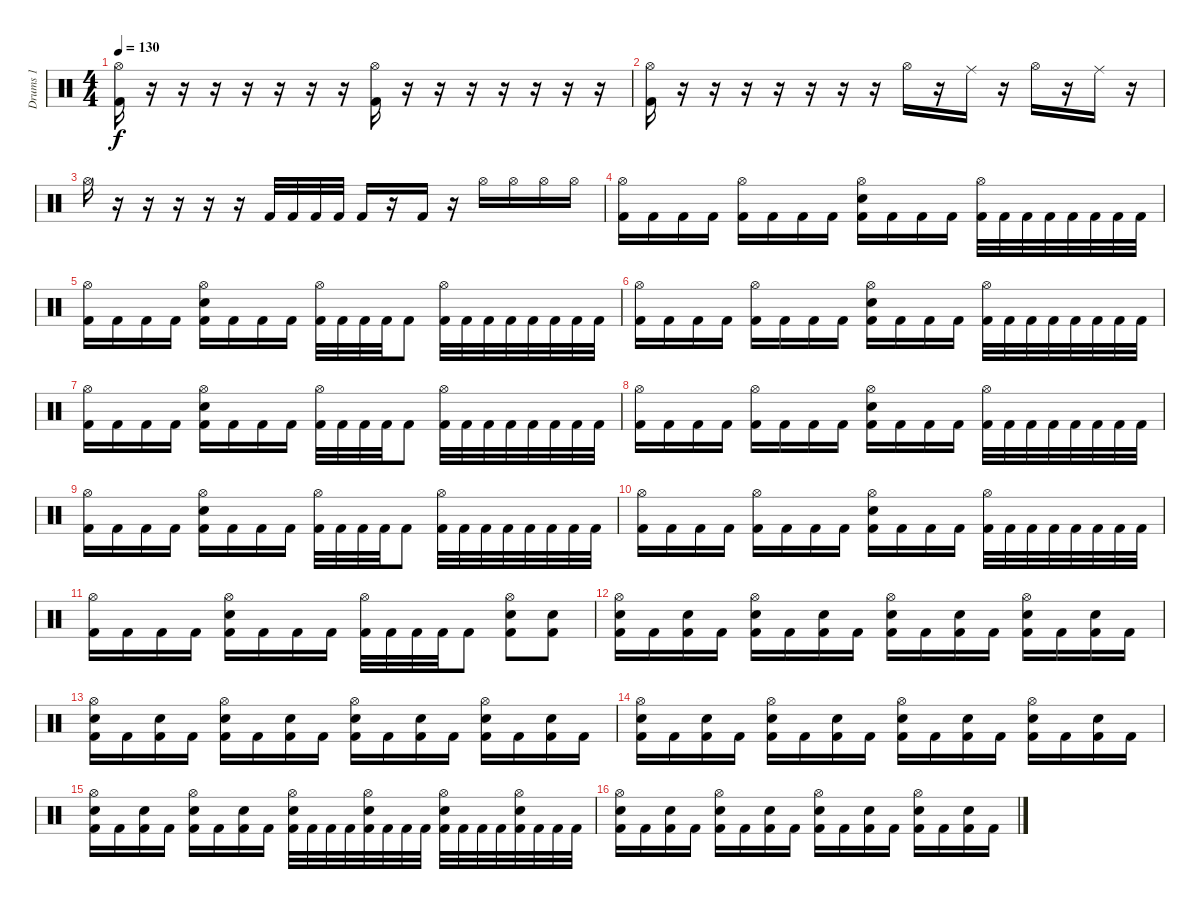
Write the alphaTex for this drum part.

\track ("Drums 1" "Drums 1") {instrument percussion}
\staff {score}
\articulation defaults
\ts (4 4)
\tempo 130
\clef neutral
\ks c
("Hi-Hat (open)" "Kick (hit) 2").16{dy f} r.16 r.16 r.16 r.16 r.16 r.16 r.16 ("Hi-Hat (open)" "Kick (hit) 2").16 r.16 r.16 r.16 r.16 r.16 r.16 r.16 |
("Hi-Hat (open)" "Kick (hit) 2").16 r.16 r.16 r.16 r.16 r.16 r.16 r.16 "Hi-Hat (open)".16 r.16 "Ride (middle)".16 r.16 "Hi-Hat (open)".16 r.16 "Ride (middle)".16 r.16 |
"Hi-Hat (open)".16 r.16 r.16 r.16 r.16 r.16 "Kick (hit) 2".32 "Kick (hit) 2".32 "Kick (hit) 2".32 "Kick (hit) 2".32 "Kick (hit) 2".16 r.16 "Kick (hit) 2".16 r.16 "Hi-Hat (open)".16 "Hi-Hat (open)".16 "Hi-Hat (open)".16 "Hi-Hat (open)".16 |
("Hi-Hat (open)" "Kick (hit) 2").16 "Kick (hit) 2".16 "Kick (hit) 2".16 "Kick (hit) 2".16 ("Hi-Hat (open)" "Kick (hit) 2").16 "Kick (hit) 2".16 "Kick (hit) 2".16 "Kick (hit) 2".16 ("Hi-Hat (open)" "Snare (hit) 2" "Kick (hit) 2").16 "Kick (hit) 2".16 "Kick (hit) 2".16 "Kick (hit) 2".16 ("Hi-Hat (open)" "Kick (hit) 2").32 "Kick (hit) 2".32 "Kick (hit) 2".32 "Kick (hit) 2".32 "Kick (hit) 2".32 "Kick (hit) 2".32 "Kick (hit) 2".32 "Kick (hit) 2".32 |
("Hi-Hat (open)" "Kick (hit) 2").16 "Kick (hit) 2".16 "Kick (hit) 2".16 "Kick (hit) 2".16 ("Hi-Hat (open)" "Snare (hit) 2" "Kick (hit) 2").16 "Kick (hit) 2".16 "Kick (hit) 2".16 "Kick (hit) 2".16 ("Hi-Hat (open)" "Kick (hit) 2").32 "Kick (hit) 2".32 "Kick (hit) 2".32 "Kick (hit) 2".32 "Kick (hit) 2".8 ("Hi-Hat (open)" "Kick (hit) 2").32 "Kick (hit) 2".32 "Kick (hit) 2".32 "Kick (hit) 2".32 "Kick (hit) 2".32 "Kick (hit) 2".32 "Kick (hit) 2".32 "Kick (hit) 2".32 |
("Hi-Hat (open)" "Kick (hit) 2").16 "Kick (hit) 2".16 "Kick (hit) 2".16 "Kick (hit) 2".16 ("Hi-Hat (open)" "Kick (hit) 2").16 "Kick (hit) 2".16 "Kick (hit) 2".16 "Kick (hit) 2".16 ("Hi-Hat (open)" "Snare (hit) 2" "Kick (hit) 2").16 "Kick (hit) 2".16 "Kick (hit) 2".16 "Kick (hit) 2".16 ("Hi-Hat (open)" "Kick (hit) 2").32 "Kick (hit) 2".32 "Kick (hit) 2".32 "Kick (hit) 2".32 "Kick (hit) 2".32 "Kick (hit) 2".32 "Kick (hit) 2".32 "Kick (hit) 2".32 |
("Hi-Hat (open)" "Kick (hit) 2").16 "Kick (hit) 2".16 "Kick (hit) 2".16 "Kick (hit) 2".16 ("Hi-Hat (open)" "Snare (hit) 2" "Kick (hit) 2").16 "Kick (hit) 2".16 "Kick (hit) 2".16 "Kick (hit) 2".16 ("Hi-Hat (open)" "Kick (hit) 2").32 "Kick (hit) 2".32 "Kick (hit) 2".32 "Kick (hit) 2".32 "Kick (hit) 2".8 ("Hi-Hat (open)" "Kick (hit) 2").32 "Kick (hit) 2".32 "Kick (hit) 2".32 "Kick (hit) 2".32 "Kick (hit) 2".32 "Kick (hit) 2".32 "Kick (hit) 2".32 "Kick (hit) 2".32 |
("Hi-Hat (open)" "Kick (hit) 2").16 "Kick (hit) 2".16 "Kick (hit) 2".16 "Kick (hit) 2".16 ("Hi-Hat (open)" "Kick (hit) 2").16 "Kick (hit) 2".16 "Kick (hit) 2".16 "Kick (hit) 2".16 ("Hi-Hat (open)" "Snare (hit) 2" "Kick (hit) 2").16 "Kick (hit) 2".16 "Kick (hit) 2".16 "Kick (hit) 2".16 ("Hi-Hat (open)" "Kick (hit) 2").32 "Kick (hit) 2".32 "Kick (hit) 2".32 "Kick (hit) 2".32 "Kick (hit) 2".32 "Kick (hit) 2".32 "Kick (hit) 2".32 "Kick (hit) 2".32 |
("Hi-Hat (open)" "Kick (hit) 2").16 "Kick (hit) 2".16 "Kick (hit) 2".16 "Kick (hit) 2".16 ("Hi-Hat (open)" "Snare (hit) 2" "Kick (hit) 2").16 "Kick (hit) 2".16 "Kick (hit) 2".16 "Kick (hit) 2".16 ("Hi-Hat (open)" "Kick (hit) 2").32 "Kick (hit) 2".32 "Kick (hit) 2".32 "Kick (hit) 2".32 "Kick (hit) 2".8 ("Hi-Hat (open)" "Kick (hit) 2").32 "Kick (hit) 2".32 "Kick (hit) 2".32 "Kick (hit) 2".32 "Kick (hit) 2".32 "Kick (hit) 2".32 "Kick (hit) 2".32 "Kick (hit) 2".32 |
("Hi-Hat (open)" "Kick (hit) 2").16 "Kick (hit) 2".16 "Kick (hit) 2".16 "Kick (hit) 2".16 ("Hi-Hat (open)" "Kick (hit) 2").16 "Kick (hit) 2".16 "Kick (hit) 2".16 "Kick (hit) 2".16 ("Hi-Hat (open)" "Snare (hit) 2" "Kick (hit) 2").16 "Kick (hit) 2".16 "Kick (hit) 2".16 "Kick (hit) 2".16 ("Hi-Hat (open)" "Kick (hit) 2").32 "Kick (hit) 2".32 "Kick (hit) 2".32 "Kick (hit) 2".32 "Kick (hit) 2".32 "Kick (hit) 2".32 "Kick (hit) 2".32 "Kick (hit) 2".32 |
("Hi-Hat (open)" "Kick (hit) 2").16 "Kick (hit) 2".16 "Kick (hit) 2".16 "Kick (hit) 2".16 ("Hi-Hat (open)" "Snare (hit) 2" "Kick (hit) 2").16 "Kick (hit) 2".16 "Kick (hit) 2".16 "Kick (hit) 2".16 ("Hi-Hat (open)" "Kick (hit) 2").32 "Kick (hit) 2".32 "Kick (hit) 2".32 "Kick (hit) 2".32 "Kick (hit) 2".8 ("Hi-Hat (open)" "Snare (hit) 2" "Kick (hit) 2").8 ("Snare (hit) 2" "Kick (hit) 2").8 |
("Hi-Hat (open)" "Snare (hit) 2" "Kick (hit) 2").16 "Kick (hit) 2".16 ("Snare (hit) 2" "Kick (hit) 2").16 "Kick (hit) 2".16 ("Hi-Hat (open)" "Snare (hit) 2" "Kick (hit) 2").16 "Kick (hit) 2".16 ("Snare (hit) 2" "Kick (hit) 2").16 "Kick (hit) 2".16 ("Hi-Hat (open)" "Snare (hit) 2" "Kick (hit) 2").16 "Kick (hit) 2".16 ("Snare (hit) 2" "Kick (hit) 2").16 "Kick (hit) 2".16 ("Hi-Hat (open)" "Snare (hit) 2" "Kick (hit) 2").16 "Kick (hit) 2".16 ("Snare (hit) 2" "Kick (hit) 2").16 "Kick (hit) 2".16 |
("Hi-Hat (open)" "Snare (hit) 2" "Kick (hit) 2").16 "Kick (hit) 2".16 ("Snare (hit) 2" "Kick (hit) 2").16 "Kick (hit) 2".16 ("Hi-Hat (open)" "Snare (hit) 2" "Kick (hit) 2").16 "Kick (hit) 2".16 ("Snare (hit) 2" "Kick (hit) 2").16 "Kick (hit) 2".16 ("Hi-Hat (open)" "Snare (hit) 2" "Kick (hit) 2").16 "Kick (hit) 2".16 ("Snare (hit) 2" "Kick (hit) 2").16 "Kick (hit) 2".16 ("Hi-Hat (open)" "Snare (hit) 2" "Kick (hit) 2").16 "Kick (hit) 2".16 ("Snare (hit) 2" "Kick (hit) 2").16 "Kick (hit) 2".16 |
("Hi-Hat (open)" "Snare (hit) 2" "Kick (hit) 2").16 "Kick (hit) 2".16 ("Snare (hit) 2" "Kick (hit) 2").16 "Kick (hit) 2".16 ("Hi-Hat (open)" "Snare (hit) 2" "Kick (hit) 2").16 "Kick (hit) 2".16 ("Snare (hit) 2" "Kick (hit) 2").16 "Kick (hit) 2".16 ("Hi-Hat (open)" "Snare (hit) 2" "Kick (hit) 2").16 "Kick (hit) 2".16 ("Snare (hit) 2" "Kick (hit) 2").16 "Kick (hit) 2".16 ("Hi-Hat (open)" "Snare (hit) 2" "Kick (hit) 2").16 "Kick (hit) 2".16 ("Snare (hit) 2" "Kick (hit) 2").16 "Kick (hit) 2".16 |
("Hi-Hat (open)" "Snare (hit) 2" "Kick (hit) 2").16 "Kick (hit) 2".16 ("Snare (hit) 2" "Kick (hit) 2").16 "Kick (hit) 2".16 ("Hi-Hat (open)" "Snare (hit) 2" "Kick (hit) 2").16 "Kick (hit) 2".16 ("Snare (hit) 2" "Kick (hit) 2").16 "Kick (hit) 2".16 ("Hi-Hat (open)" "Snare (hit) 2" "Kick (hit) 2").32 "Kick (hit) 2".32 "Kick (hit) 2".32 "Kick (hit) 2".32 ("Hi-Hat (open)" "Snare (hit) 2" "Kick (hit) 2").32 "Kick (hit) 2".32 "Kick (hit) 2".32 "Kick (hit) 2".32 ("Hi-Hat (open)" "Snare (hit) 2" "Kick (hit) 2").32 "Kick (hit) 2".32 "Kick (hit) 2".32 "Kick (hit) 2".32 ("Hi-Hat (open)" "Snare (hit) 2" "Kick (hit) 2").32 "Kick (hit) 2".32 "Kick (hit) 2".32 "Kick (hit) 2".32 |
("Hi-Hat (open)" "Snare (hit) 2" "Kick (hit) 2").16 "Kick (hit) 2".16 ("Snare (hit) 2" "Kick (hit) 2").16 "Kick (hit) 2".16 ("Hi-Hat (open)" "Snare (hit) 2" "Kick (hit) 2").16 "Kick (hit) 2".16 ("Snare (hit) 2" "Kick (hit) 2").16 "Kick (hit) 2".16 ("Hi-Hat (open)" "Snare (hit) 2" "Kick (hit) 2").16 "Kick (hit) 2".16 ("Snare (hit) 2" "Kick (hit) 2").16 "Kick (hit) 2".16 ("Hi-Hat (open)" "Snare (hit) 2" "Kick (hit) 2").16 "Kick (hit) 2".16 ("Snare (hit) 2" "Kick (hit) 2").16 "Kick (hit) 2".16
